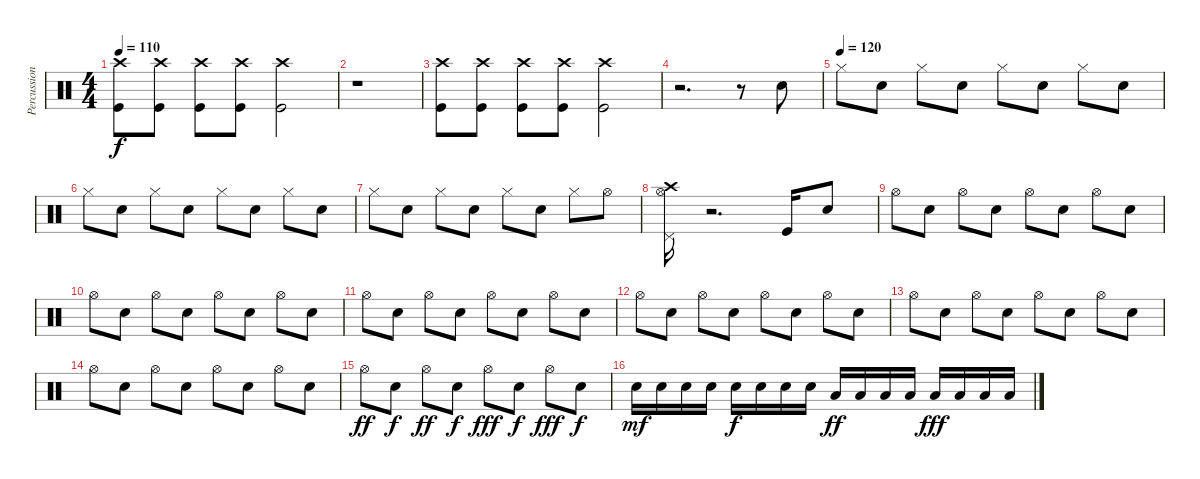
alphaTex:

\track ("Percussions" "Percussion") {instrument percussion}
\staff {score}
\articulation defaults
\ts (4 4)
\tempo 110
\clef neutral
\ks c
("Crash high (hit)" "Kick (hit)").8{dy f} ("Crash high (hit)" "Kick (hit)").8 ("Crash high (hit)" "Kick (hit)").8 ("Crash high (hit)" "Kick (hit)").8 ("Crash high (hit)" "Kick (hit)").2 |
r.1 |
("Crash high (hit)" "Kick (hit)").8 ("Crash high (hit)" "Kick (hit)").8 ("Crash high (hit)" "Kick (hit)").8 ("Crash high (hit)" "Kick (hit)").8 ("Crash high (hit)" "Kick (hit)").2 |
r.2{d} r.8 "Snare (hit) 2".8 |
\tempo (120)
"Hi-Hat (closed)".8 "Snare (hit) 2".8 "Hi-Hat (closed)".8 "Snare (hit) 2".8 "Hi-Hat (closed)".8 "Snare (hit) 2".8 "Hi-Hat (closed)".8 "Snare (hit) 2".8 |
"Hi-Hat (closed)".8 "Snare (hit) 2".8 "Hi-Hat (closed)".8 "Snare (hit) 2".8 "Hi-Hat (closed)".8 "Snare (hit) 2".8 "Hi-Hat (closed)".8 "Snare (hit) 2".8 |
"Hi-Hat (closed)".8 "Snare (hit) 2".8 "Hi-Hat (closed)".8 "Snare (hit) 2".8 "Hi-Hat (closed)".8 "Snare (hit) 2".8 "Hi-Hat (closed)".8 "Hi-Hat (open)".8 |
("Crash high (hit)" "Hi-Hat (open)" "Pedal Hi-Hat (hit)").16 r.2{d} "Kick (hit)".16 "Snare (hit) 2".8 |
"Hi-Hat (open)".8 "Snare (hit) 2".8 "Hi-Hat (open)".8 "Snare (hit) 2".8 "Hi-Hat (open)".8 "Snare (hit) 2".8 "Hi-Hat (open)".8 "Snare (hit) 2".8 |
"Hi-Hat (open)".8 "Snare (hit) 2".8 "Hi-Hat (open)".8 "Snare (hit) 2".8 "Hi-Hat (open)".8 "Snare (hit) 2".8 "Hi-Hat (open)".8 "Snare (hit) 2".8 |
"Hi-Hat (open)".8 "Snare (hit) 2".8 "Hi-Hat (open)".8 "Snare (hit) 2".8 "Hi-Hat (open)".8 "Snare (hit) 2".8 "Hi-Hat (open)".8 "Snare (hit) 2".8 |
"Hi-Hat (open)".8 "Snare (hit) 2".8 "Hi-Hat (open)".8 "Snare (hit) 2".8 "Hi-Hat (open)".8 "Snare (hit) 2".8 "Hi-Hat (open)".8 "Snare (hit) 2".8 |
"Hi-Hat (open)".8 "Snare (hit) 2".8 "Hi-Hat (open)".8 "Snare (hit) 2".8 "Hi-Hat (open)".8 "Snare (hit) 2".8 "Hi-Hat (open)".8 "Snare (hit) 2".8 |
"Hi-Hat (open)".8 "Snare (hit) 2".8 "Hi-Hat (open)".8 "Snare (hit) 2".8 "Hi-Hat (open)".8 "Snare (hit) 2".8 "Hi-Hat (open)".8 "Snare (hit) 2".8 |
"Hi-Hat (open)".8{dy ff} "Snare (hit) 2".8{dy f} "Hi-Hat (open)".8{dy ff} "Snare (hit) 2".8{dy f} "Hi-Hat (open)".8{dy fff} "Snare (hit) 2".8{dy f} "Hi-Hat (open)".8{dy fff} "Snare (hit) 2".8{dy f} |
"Electric Snare (hit)".16{dy mf} "Electric Snare (hit)".16 "Electric Snare (hit)".16 "Electric Snare (hit)".16 "Electric Snare (hit)".16{dy f} "Electric Snare (hit)".16 "Electric Snare (hit)".16 "Electric Snare (hit)".16 "Low Floor Tom (hit)".16{dy ff} "Low Floor Tom (hit)".16 "Low Floor Tom (hit)".16 "Low Floor Tom (hit)".16 "Low Tom (hit)".16{dy fff} "Low Tom (hit)".16 "Low Tom (hit)".16 "Low Tom (hit)".16
